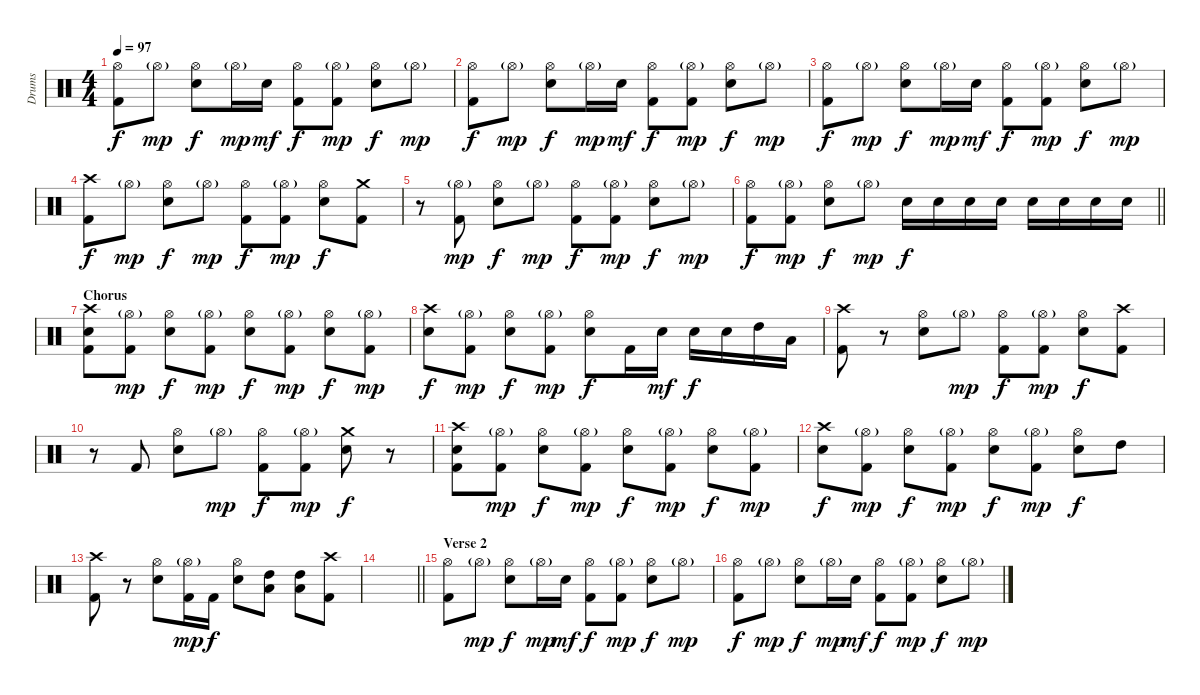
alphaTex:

\track ("Drums" "Drums") {instrument percussion}
\staff {score}
\articulation defaults
\ts (4 4)
\tempo 97
\clef neutral
\ks c
("Hi-Hat (open)" "Kick (hit) 2").8{dy f} "Hi-Hat (open)"{g}.8{dy mp} ("Hi-Hat (open)" "Electric Snare (hit)").8{dy f} "Hi-Hat (open)"{g}.16{dy mp} "Electric Snare (hit)".16{dy mf} ("Hi-Hat (open)" "Kick (hit) 2").8{dy f} ("Hi-Hat (open)"{g} "Kick (hit) 2").8{dy mp} ("Hi-Hat (open)" "Electric Snare (hit)").8{dy f} "Hi-Hat (open)"{g}.8{dy mp} |
("Hi-Hat (open)" "Kick (hit) 2").8{dy f} "Hi-Hat (open)"{g}.8{dy mp} ("Hi-Hat (open)" "Electric Snare (hit)").8{dy f} "Hi-Hat (open)"{g}.16{dy mp} "Electric Snare (hit)".16{dy mf} ("Hi-Hat (open)" "Kick (hit) 2").8{dy f} ("Hi-Hat (open)"{g} "Kick (hit) 2").8{dy mp} ("Hi-Hat (open)" "Electric Snare (hit)").8{dy f} "Hi-Hat (open)"{g}.8{dy mp} |
("Hi-Hat (open)" "Kick (hit) 2").8{dy f} "Hi-Hat (open)"{g}.8{dy mp} ("Hi-Hat (open)" "Electric Snare (hit)").8{dy f} "Hi-Hat (open)"{g}.16{dy mp} "Electric Snare (hit)".16{dy mf} ("Hi-Hat (open)" "Kick (hit) 2").8{dy f} ("Hi-Hat (open)"{g} "Kick (hit) 2").8{dy mp} ("Hi-Hat (open)" "Electric Snare (hit)").8{dy f} "Hi-Hat (open)"{g}.8{dy mp} |
("Crash high (hit)" "Kick (hit) 2").8{dy f} "Hi-Hat (open)"{g}.8{dy mp} ("Hi-Hat (open)" "Electric Snare (hit)").8{dy f} "Hi-Hat (open)"{g}.8{dy mp} ("Hi-Hat (open)" "Kick (hit) 2").8{dy f} ("Hi-Hat (open)"{g} "Kick (hit) 2").8{dy mp} ("Hi-Hat (open)" "Electric Snare (hit)").8{dy f} ("Crash medium (hit)" "Kick (hit) 2").8 |
r.8 ("Hi-Hat (open)"{g} "Kick (hit) 2").8{dy mp} ("Hi-Hat (open)" "Electric Snare (hit)").8{dy f} "Hi-Hat (open)"{g}.8{dy mp} ("Hi-Hat (open)" "Kick (hit) 2").8{dy f} ("Hi-Hat (open)"{g} "Kick (hit) 2").8{dy mp} ("Hi-Hat (open)" "Electric Snare (hit)").8{dy f} "Hi-Hat (open)"{g}.8{dy mp} |
\barLineRight lightlight
("Hi-Hat (open)" "Kick (hit) 2").8{dy f} ("Hi-Hat (open)"{g} "Kick (hit) 2").8{dy mp} ("Hi-Hat (open)" "Electric Snare (hit)").8{dy f} "Hi-Hat (open)"{g}.8{dy mp} "Electric Snare (hit)".16{dy f} "Electric Snare (hit)".16 "Electric Snare (hit)".16 "Electric Snare (hit)".16 "Electric Snare (hit)".16 "Electric Snare (hit)".16 "Electric Snare (hit)".16 "Electric Snare (hit)".16 |
\section ("" "Chorus")
("Crash high (hit)" "Electric Snare (hit)" "Kick (hit) 2").8 ("Hi-Hat (open)"{g} "Kick (hit) 2").8{dy mp} ("Hi-Hat (open)" "Electric Snare (hit)").8{dy f} ("Hi-Hat (open)"{g} "Kick (hit) 2").8{dy mp} ("Hi-Hat (open)" "Electric Snare (hit)").8{dy f} ("Hi-Hat (open)"{g} "Kick (hit) 2").8{dy mp} ("Hi-Hat (open)" "Electric Snare (hit)").8{dy f} ("Hi-Hat (open)"{g} "Kick (hit) 2").8{dy mp} |
("Crash high (hit)" "Electric Snare (hit)").8{dy f} ("Hi-Hat (open)"{g} "Kick (hit) 2").8{dy mp} ("Hi-Hat (open)" "Electric Snare (hit)").8{dy f} ("Hi-Hat (open)"{g} "Kick (hit) 2").8{dy mp} ("Hi-Hat (open)" "Electric Snare (hit)").8{dy f} "Kick (hit) 2".16 "Electric Snare (hit)".16{dy mf} "Electric Snare (hit)".16{dy f} "Electric Snare (hit)".16 "High Tom (hit)".16 "Low Tom (hit)".16 |
("Crash high (hit)" "Kick (hit) 2").8 r.8 ("Hi-Hat (open)" "Electric Snare (hit)").8 "Hi-Hat (open)"{g}.8{dy mp} ("Hi-Hat (open)" "Kick (hit) 2").8{dy f} ("Hi-Hat (open)"{g} "Kick (hit) 2").8{dy mp} ("Hi-Hat (open)" "Electric Snare (hit)").8{dy f} ("Crash high (hit)" "Kick (hit) 2").8 |
r.8 "Kick (hit) 2".8 ("Hi-Hat (open)" "Electric Snare (hit)").8 "Hi-Hat (open)"{g}.8{dy mp} ("Hi-Hat (open)" "Kick (hit) 2").8{dy f} ("Hi-Hat (open)"{g} "Kick (hit) 2").8{dy mp} ("Crash medium (hit)" "Electric Snare (hit)").8{dy f} r.8 |
("Crash high (hit)" "Electric Snare (hit)" "Kick (hit) 2").8 ("Hi-Hat (open)"{g} "Kick (hit) 2").8{dy mp} ("Hi-Hat (open)" "Electric Snare (hit)").8{dy f} ("Hi-Hat (open)"{g} "Kick (hit) 2").8{dy mp} ("Hi-Hat (open)" "Electric Snare (hit)").8{dy f} ("Hi-Hat (open)"{g} "Kick (hit) 2").8{dy mp} ("Hi-Hat (open)" "Electric Snare (hit)").8{dy f} ("Hi-Hat (open)"{g} "Kick (hit) 2").8{dy mp} |
("Crash high (hit)" "Electric Snare (hit)").8{dy f} ("Hi-Hat (open)"{g} "Kick (hit) 2").8{dy mp} ("Hi-Hat (open)" "Electric Snare (hit)").8{dy f} ("Hi-Hat (open)"{g} "Kick (hit) 2").8{dy mp} ("Hi-Hat (open)" "Electric Snare (hit)").8{dy f} ("Hi-Hat (open)"{g} "Kick (hit) 2").8{dy mp} ("Hi-Hat (open)" "Electric Snare (hit)").8{dy f} "High Tom (hit)".8 |
("Crash high (hit)" "Kick (hit) 2").8 r.8 ("Hi-Hat (open)" "Electric Snare (hit)").8 ("Hi-Hat (open)"{g} "Kick (hit) 2").16{dy mp} "Kick (hit) 2".16{dy f} ("Hi-Hat (open)" "Electric Snare (hit)").8 ("Low Tom (hit)" "High Tom (hit)").8 ("Low Tom (hit)" "High Tom (hit)").8 ("Crash high (hit)" "Kick (hit) 2").8 |
\barLineRight lightlight
|
\section ("" "Verse 2")
("Hi-Hat (open)" "Kick (hit) 2").8 "Hi-Hat (open)"{g}.8{dy mp} ("Hi-Hat (open)" "Electric Snare (hit)").8{dy f} "Hi-Hat (open)"{g}.16{dy mp} "Electric Snare (hit)".16{dy mf} ("Hi-Hat (open)" "Kick (hit) 2").8{dy f} ("Hi-Hat (open)"{g} "Kick (hit) 2").8{dy mp} ("Hi-Hat (open)" "Electric Snare (hit)").8{dy f} "Hi-Hat (open)"{g}.8{dy mp} |
("Hi-Hat (open)" "Kick (hit) 2").8{dy f} "Hi-Hat (open)"{g}.8{dy mp} ("Hi-Hat (open)" "Electric Snare (hit)").8{dy f} "Hi-Hat (open)"{g}.16{dy mp} "Electric Snare (hit)".16{dy mf} ("Hi-Hat (open)" "Kick (hit) 2").8{dy f} ("Hi-Hat (open)"{g} "Kick (hit) 2").8{dy mp} ("Hi-Hat (open)" "Electric Snare (hit)").8{dy f} "Hi-Hat (open)"{g}.8{dy mp}
